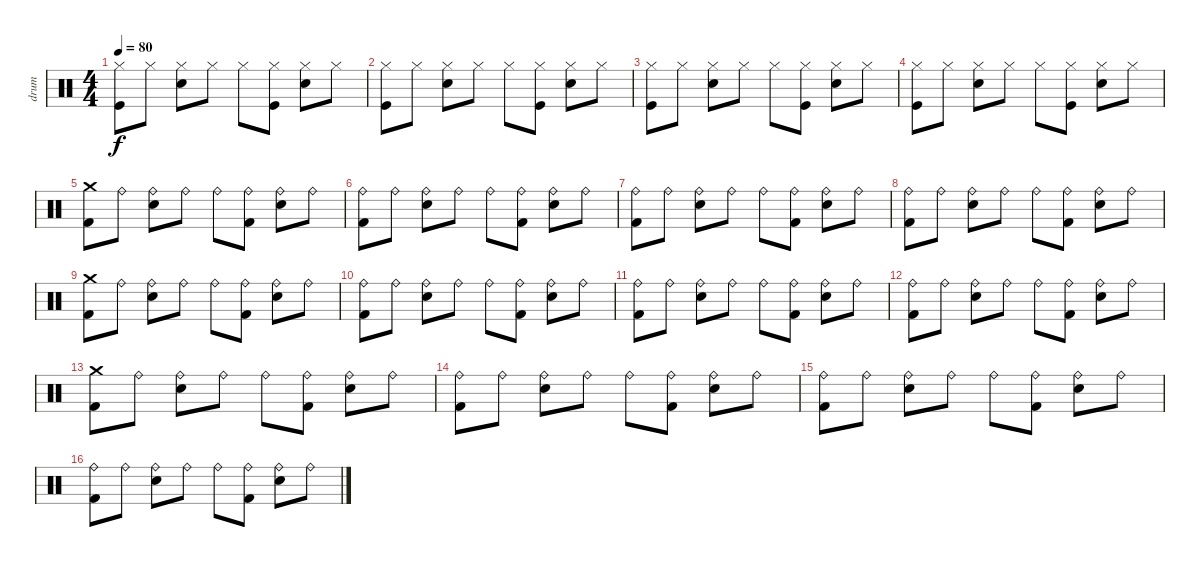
\track ("drum" "drum") {instrument percussion}
\staff {score}
\articulation defaults
\ts (4 4)
\tempo 80
\clef neutral
\ks c
("Hi-Hat (closed)" "Kick (hit)").8{dy f} "Hi-Hat (closed)".8 ("Hi-Hat (closed)" "Electric Snare (hit)").8 "Hi-Hat (closed)".8 "Hi-Hat (closed)".8 ("Hi-Hat (closed)" "Kick (hit)").8 ("Hi-Hat (closed)" "Electric Snare (hit)").8 "Hi-Hat (closed)".8 |
("Hi-Hat (closed)" "Kick (hit)").8 "Hi-Hat (closed)".8 ("Hi-Hat (closed)" "Electric Snare (hit)").8 "Hi-Hat (closed)".8 "Hi-Hat (closed)".8 ("Hi-Hat (closed)" "Kick (hit)").8 ("Hi-Hat (closed)" "Electric Snare (hit)").8 "Hi-Hat (closed)".8 |
("Hi-Hat (closed)" "Kick (hit)").8 "Hi-Hat (closed)".8 ("Hi-Hat (closed)" "Electric Snare (hit)").8 "Hi-Hat (closed)".8 "Hi-Hat (closed)".8 ("Hi-Hat (closed)" "Kick (hit)").8 ("Hi-Hat (closed)" "Electric Snare (hit)").8 "Hi-Hat (closed)".8 |
("Hi-Hat (closed)" "Kick (hit)").8 "Hi-Hat (closed)".8 ("Hi-Hat (closed)" "Electric Snare (hit)").8 "Hi-Hat (closed)".8 "Hi-Hat (closed)".8 ("Hi-Hat (closed)" "Kick (hit)").8 ("Hi-Hat (closed)" "Electric Snare (hit)").8 "Hi-Hat (closed)".8 |
("Crash medium (hit)" "Kick (hit) 2").8 "Ride (bell)".8 ("Ride (bell)" "Snare (hit) 2").8 "Ride (bell)".8 "Ride (bell)".8 ("Ride (bell)" "Kick (hit) 2").8 ("Ride (bell)" "Snare (hit) 2").8 "Ride (bell)".8 |
("Ride (bell)" "Kick (hit) 2").8 "Ride (bell)".8 ("Ride (bell)" "Snare (hit) 2").8 "Ride (bell)".8 "Ride (bell)".8 ("Ride (bell)" "Kick (hit) 2").8 ("Ride (bell)" "Snare (hit) 2").8 "Ride (bell)".8 |
("Ride (bell)" "Kick (hit) 2").8 "Ride (bell)".8 ("Ride (bell)" "Snare (hit) 2").8 "Ride (bell)".8 "Ride (bell)".8 ("Ride (bell)" "Kick (hit) 2").8 ("Ride (bell)" "Snare (hit) 2").8 "Ride (bell)".8 |
("Ride (bell)" "Kick (hit) 2").8 "Ride (bell)".8 ("Ride (bell)" "Snare (hit) 2").8 "Ride (bell)".8 "Ride (bell)".8 ("Ride (bell)" "Kick (hit) 2").8 ("Ride (bell)" "Snare (hit) 2").8 "Ride (bell)".8 |
("Crash medium (hit)" "Kick (hit) 2").8 "Ride (bell)".8 ("Ride (bell)" "Snare (hit) 2").8 "Ride (bell)".8 "Ride (bell)".8 ("Ride (bell)" "Kick (hit) 2").8 ("Ride (bell)" "Snare (hit) 2").8 "Ride (bell)".8 |
("Ride (bell)" "Kick (hit) 2").8 "Ride (bell)".8 ("Ride (bell)" "Snare (hit) 2").8 "Ride (bell)".8 "Ride (bell)".8 ("Ride (bell)" "Kick (hit) 2").8 ("Ride (bell)" "Snare (hit) 2").8 "Ride (bell)".8 |
("Ride (bell)" "Kick (hit) 2").8 "Ride (bell)".8 ("Ride (bell)" "Snare (hit) 2").8 "Ride (bell)".8 "Ride (bell)".8 ("Ride (bell)" "Kick (hit) 2").8 ("Ride (bell)" "Snare (hit) 2").8 "Ride (bell)".8 |
("Ride (bell)" "Kick (hit) 2").8 "Ride (bell)".8 ("Ride (bell)" "Snare (hit) 2").8 "Ride (bell)".8 "Ride (bell)".8 ("Ride (bell)" "Kick (hit) 2").8 ("Ride (bell)" "Snare (hit) 2").8 "Ride (bell)".8 |
("Crash medium (hit)" "Kick (hit) 2").8 "Ride (bell)".8 ("Ride (bell)" "Snare (hit) 2").8 "Ride (bell)".8 "Ride (bell)".8 ("Ride (bell)" "Kick (hit) 2").8 ("Ride (bell)" "Snare (hit) 2").8 "Ride (bell)".8 |
("Ride (bell)" "Kick (hit) 2").8 "Ride (bell)".8 ("Ride (bell)" "Snare (hit) 2").8 "Ride (bell)".8 "Ride (bell)".8 ("Ride (bell)" "Kick (hit) 2").8 ("Ride (bell)" "Snare (hit) 2").8 "Ride (bell)".8 |
("Ride (bell)" "Kick (hit) 2").8 "Ride (bell)".8 ("Ride (bell)" "Snare (hit) 2").8 "Ride (bell)".8 "Ride (bell)".8 ("Ride (bell)" "Kick (hit) 2").8 ("Ride (bell)" "Snare (hit) 2").8 "Ride (bell)".8 |
("Ride (bell)" "Kick (hit) 2").8 "Ride (bell)".8 ("Ride (bell)" "Snare (hit) 2").8 "Ride (bell)".8 "Ride (bell)".8 ("Ride (bell)" "Kick (hit) 2").8 ("Ride (bell)" "Snare (hit) 2").8 "Ride (bell)".8
